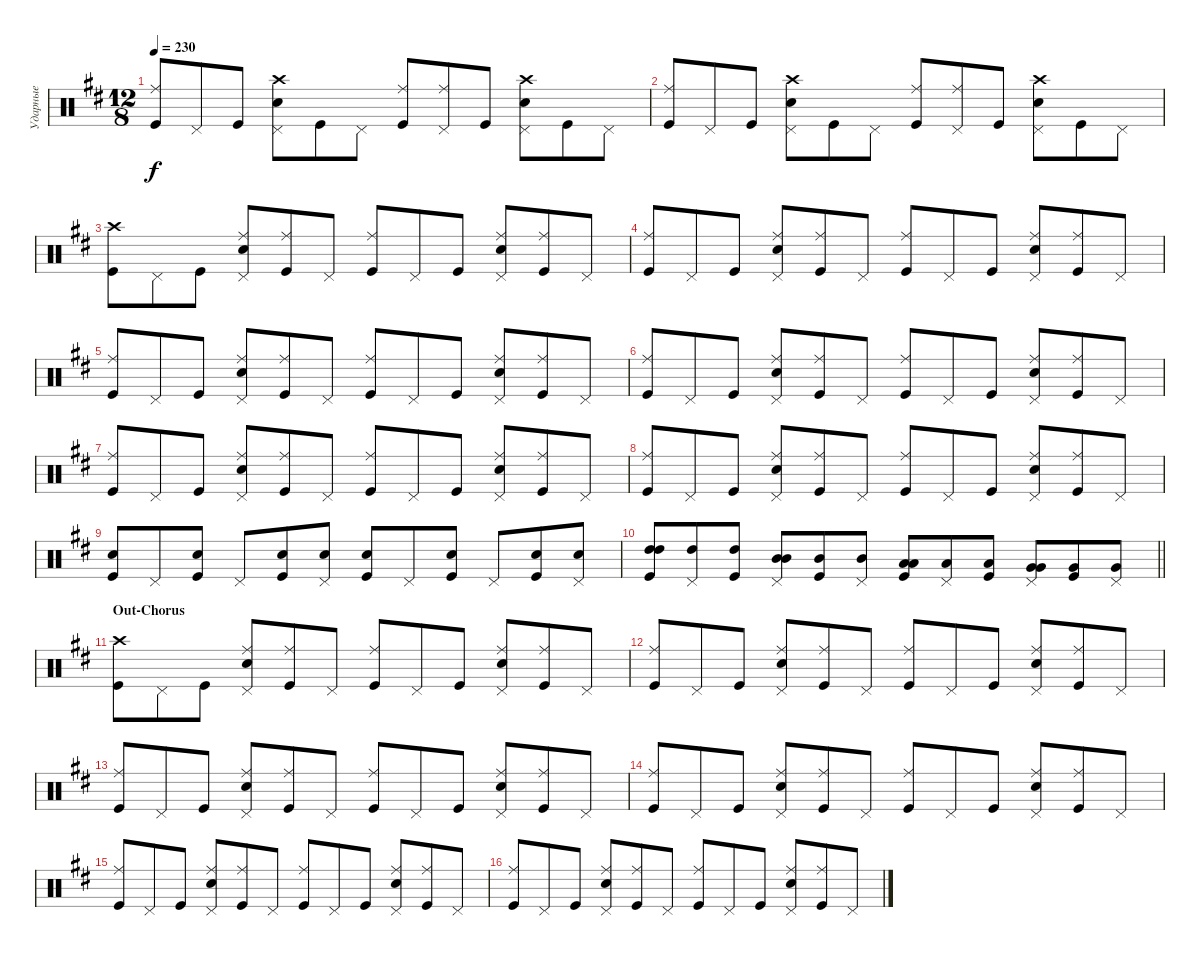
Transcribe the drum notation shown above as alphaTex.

\track ("Ударные" "Ударные") {instrument percussion}
\staff {score}
\articulation defaults
\ts (12 8)
\tempo 230
\clef neutral
\ks bminor
("Kick (hit)" "Ride (middle)").8{dy f} "Pedal Hi-Hat (hit)".8 "Kick (hit)".8 ("Snare (hit) 2" "Crash high (hit)" "Pedal Hi-Hat (hit)").8 "Kick (hit)".8 "Pedal Hi-Hat (hit)".8 ("Kick (hit)" "Ride (middle)").8 ("Ride (middle)" "Pedal Hi-Hat (hit)").8 "Kick (hit)".8 ("Snare (hit) 2" "Crash high (hit)" "Pedal Hi-Hat (hit)").8 "Kick (hit)".8 "Pedal Hi-Hat (hit)".8 |
("Kick (hit)" "Ride (middle)").8 "Pedal Hi-Hat (hit)".8 "Kick (hit)".8 ("Snare (hit) 2" "Crash high (hit)" "Pedal Hi-Hat (hit)").8 "Kick (hit)".8 "Pedal Hi-Hat (hit)".8 ("Kick (hit)" "Ride (middle)").8 ("Ride (middle)" "Pedal Hi-Hat (hit)").8 "Kick (hit)".8 ("Snare (hit) 2" "Crash high (hit)" "Pedal Hi-Hat (hit)").8 "Kick (hit)".8 "Pedal Hi-Hat (hit)".8 |
("Kick (hit)" "Crash high (hit)").8 "Pedal Hi-Hat (hit)".8 "Kick (hit)".8 ("Snare (hit) 2" "Ride (middle)" "Pedal Hi-Hat (hit)").8 ("Ride (middle)" "Kick (hit)").8 "Pedal Hi-Hat (hit)".8 ("Kick (hit)" "Ride (middle)").8 "Pedal Hi-Hat (hit)".8 "Kick (hit)".8 ("Snare (hit) 2" "Ride (middle)" "Pedal Hi-Hat (hit)").8 ("Kick (hit)" "Ride (middle)").8 "Pedal Hi-Hat (hit)".8 |
("Kick (hit)" "Ride (middle)").8 "Pedal Hi-Hat (hit)".8 "Kick (hit)".8 ("Snare (hit) 2" "Ride (middle)" "Pedal Hi-Hat (hit)").8 ("Kick (hit)" "Ride (middle)").8 "Pedal Hi-Hat (hit)".8 ("Kick (hit)" "Ride (middle)").8 "Pedal Hi-Hat (hit)".8 "Kick (hit)".8 ("Snare (hit) 2" "Ride (middle)" "Pedal Hi-Hat (hit)").8 ("Kick (hit)" "Ride (middle)").8 "Pedal Hi-Hat (hit)".8 |
("Kick (hit)" "Ride (middle)").8 "Pedal Hi-Hat (hit)".8 "Kick (hit)".8 ("Snare (hit) 2" "Ride (middle)" "Pedal Hi-Hat (hit)").8 ("Kick (hit)" "Ride (middle)").8 "Pedal Hi-Hat (hit)".8 ("Kick (hit)" "Ride (middle)").8 "Pedal Hi-Hat (hit)".8 "Kick (hit)".8 ("Snare (hit) 2" "Ride (middle)" "Pedal Hi-Hat (hit)").8 ("Kick (hit)" "Ride (middle)").8 "Pedal Hi-Hat (hit)".8 |
("Kick (hit)" "Ride (middle)").8 "Pedal Hi-Hat (hit)".8 "Kick (hit)".8 ("Snare (hit) 2" "Ride (middle)" "Pedal Hi-Hat (hit)").8 ("Kick (hit)" "Ride (middle)").8 "Pedal Hi-Hat (hit)".8 ("Kick (hit)" "Ride (middle)").8 "Pedal Hi-Hat (hit)".8 "Kick (hit)".8 ("Snare (hit) 2" "Ride (middle)" "Pedal Hi-Hat (hit)").8 ("Kick (hit)" "Ride (middle)").8 "Pedal Hi-Hat (hit)".8 |
("Kick (hit)" "Ride (middle)").8 "Pedal Hi-Hat (hit)".8 "Kick (hit)".8 ("Snare (hit) 2" "Ride (middle)" "Pedal Hi-Hat (hit)").8 ("Kick (hit)" "Ride (middle)").8 "Pedal Hi-Hat (hit)".8 ("Kick (hit)" "Ride (middle)").8 "Pedal Hi-Hat (hit)".8 "Kick (hit)".8 ("Snare (hit) 2" "Ride (middle)" "Pedal Hi-Hat (hit)").8 ("Kick (hit)" "Ride (middle)").8 "Pedal Hi-Hat (hit)".8 |
("Kick (hit)" "Ride (middle)").8 "Pedal Hi-Hat (hit)".8 "Kick (hit)".8 ("Snare (hit) 2" "Ride (middle)" "Pedal Hi-Hat (hit)").8 ("Kick (hit)" "Ride (middle)").8 "Pedal Hi-Hat (hit)".8 ("Kick (hit)" "Ride (middle)").8 "Pedal Hi-Hat (hit)".8 "Kick (hit)".8 ("Snare (hit) 2" "Ride (middle)" "Pedal Hi-Hat (hit)").8 ("Kick (hit)" "Ride (middle)").8 "Pedal Hi-Hat (hit)".8 |
("Snare (hit) 2" "Kick (hit)").8 "Pedal Hi-Hat (hit)".8 ("Snare (hit) 2" "Kick (hit)").8 "Pedal Hi-Hat (hit)".8 ("Snare (hit) 2" "Kick (hit)").8 ("Snare (hit) 2" "Pedal Hi-Hat (hit)").8 ("Snare (hit) 2" "Kick (hit)").8 "Pedal Hi-Hat (hit)".8 ("Snare (hit) 2" "Kick (hit)").8 "Pedal Hi-Hat (hit)".8 ("Snare (hit) 2" "Kick (hit)").8 ("Snare (hit) 2" "Pedal Hi-Hat (hit)").8 |
\barLineRight lightlight
("High Tom (hit)" "High Tom (hit)" "Kick (hit)").8{bd 240} ("High Tom (hit)" "Pedal Hi-Hat (hit)").8 ("Kick (hit)" "High Tom (hit)").8{bd 240} ("Mid Tom (hit)" "Pedal Hi-Hat (hit)" "Mid Tom (hit)").8{bd 240} ("Kick (hit)" "Mid Tom (hit)").8{bd 240} ("Pedal Hi-Hat (hit)" "Mid Tom (hit)").8 ("Low Tom (hit)" "Kick (hit)" "Low Tom (hit)").8{bd 240} ("Pedal Hi-Hat (hit)" "Low Tom (hit)").8 ("Low Tom (hit)" "Kick (hit)").8 ("Very Low Tom (hit)" "Pedal Hi-Hat (hit)" "Very Low Tom (hit)").8{bd 240} ("Kick (hit)" "Very Low Tom (hit)").8 ("Very Low Tom (hit)" "Pedal Hi-Hat (hit)").8 |
\section ("" "Out-Chorus")
("Kick (hit)" "Crash high (hit)").8 "Pedal Hi-Hat (hit)".8 "Kick (hit)".8 ("Snare (hit) 2" "Ride (middle)" "Pedal Hi-Hat (hit)").8 ("Ride (middle)" "Kick (hit)").8 "Pedal Hi-Hat (hit)".8 ("Kick (hit)" "Ride (middle)").8 "Pedal Hi-Hat (hit)".8 "Kick (hit)".8 ("Snare (hit) 2" "Ride (middle)" "Pedal Hi-Hat (hit)").8 ("Kick (hit)" "Ride (middle)").8 "Pedal Hi-Hat (hit)".8 |
("Kick (hit)" "Ride (middle)").8 "Pedal Hi-Hat (hit)".8 "Kick (hit)".8 ("Snare (hit) 2" "Ride (middle)" "Pedal Hi-Hat (hit)").8 ("Kick (hit)" "Ride (middle)").8 "Pedal Hi-Hat (hit)".8 ("Kick (hit)" "Ride (middle)").8 "Pedal Hi-Hat (hit)".8 "Kick (hit)".8 ("Snare (hit) 2" "Ride (middle)" "Pedal Hi-Hat (hit)").8 ("Kick (hit)" "Ride (middle)").8 "Pedal Hi-Hat (hit)".8 |
("Kick (hit)" "Ride (middle)").8 "Pedal Hi-Hat (hit)".8 "Kick (hit)".8 ("Snare (hit) 2" "Ride (middle)" "Pedal Hi-Hat (hit)").8 ("Kick (hit)" "Ride (middle)").8 "Pedal Hi-Hat (hit)".8 ("Kick (hit)" "Ride (middle)").8 "Pedal Hi-Hat (hit)".8 "Kick (hit)".8 ("Snare (hit) 2" "Ride (middle)" "Pedal Hi-Hat (hit)").8 ("Kick (hit)" "Ride (middle)").8 "Pedal Hi-Hat (hit)".8 |
("Kick (hit)" "Ride (middle)").8 "Pedal Hi-Hat (hit)".8 "Kick (hit)".8 ("Snare (hit) 2" "Ride (middle)" "Pedal Hi-Hat (hit)").8 ("Kick (hit)" "Ride (middle)").8 "Pedal Hi-Hat (hit)".8 ("Kick (hit)" "Ride (middle)").8 "Pedal Hi-Hat (hit)".8 "Kick (hit)".8 ("Snare (hit) 2" "Ride (middle)" "Pedal Hi-Hat (hit)").8 ("Kick (hit)" "Ride (middle)").8 "Pedal Hi-Hat (hit)".8 |
("Kick (hit)" "Ride (middle)").8 "Pedal Hi-Hat (hit)".8 "Kick (hit)".8 ("Snare (hit) 2" "Ride (middle)" "Pedal Hi-Hat (hit)").8 ("Kick (hit)" "Ride (middle)").8 "Pedal Hi-Hat (hit)".8 ("Kick (hit)" "Ride (middle)").8 "Pedal Hi-Hat (hit)".8 "Kick (hit)".8 ("Snare (hit) 2" "Ride (middle)" "Pedal Hi-Hat (hit)").8 ("Kick (hit)" "Ride (middle)").8 "Pedal Hi-Hat (hit)".8 |
("Kick (hit)" "Ride (middle)").8 "Pedal Hi-Hat (hit)".8 "Kick (hit)".8 ("Snare (hit) 2" "Ride (middle)" "Pedal Hi-Hat (hit)").8 ("Kick (hit)" "Ride (middle)").8 "Pedal Hi-Hat (hit)".8 ("Kick (hit)" "Ride (middle)").8 "Pedal Hi-Hat (hit)".8 "Kick (hit)".8 ("Snare (hit) 2" "Ride (middle)" "Pedal Hi-Hat (hit)").8 ("Kick (hit)" "Ride (middle)").8 "Pedal Hi-Hat (hit)".8
